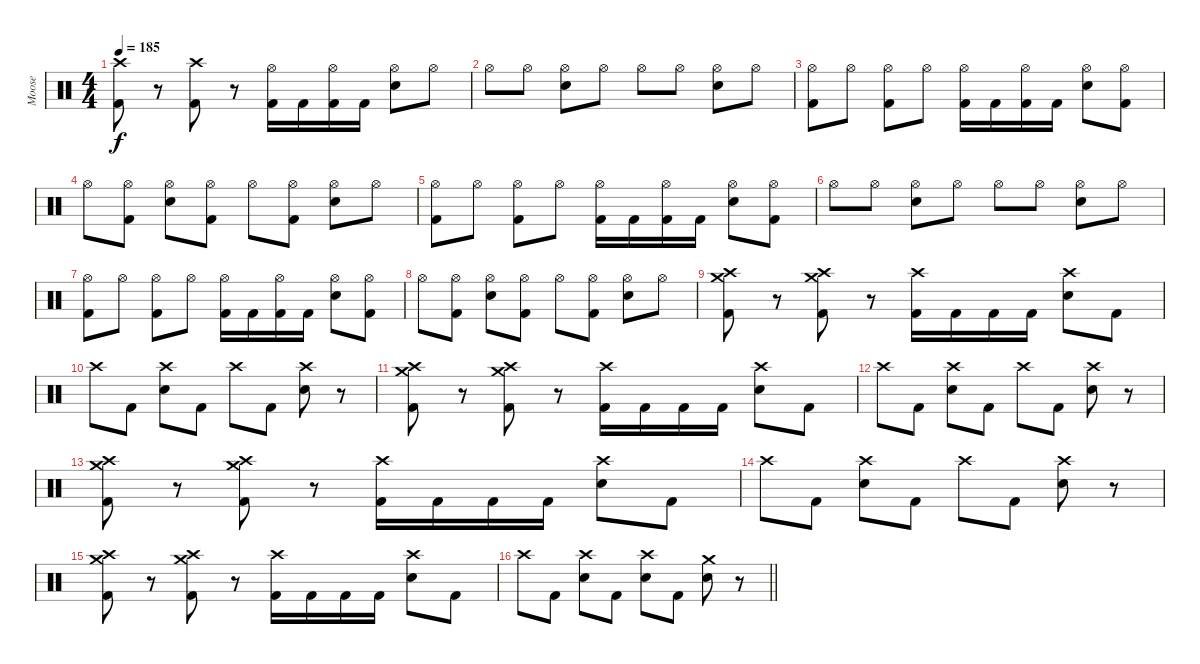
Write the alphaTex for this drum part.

\track ("Moose" "Moose") {instrument percussion}
\staff {score}
\articulation defaults
\ts (4 4)
\tempo 185
\clef neutral
\ks c
("Crash high (hit)" "Kick (hit) 2").8{dy f} r.8 ("Crash high (hit)" "Kick (hit) 2").8 r.8 ("Hi-Hat (open)" "Kick (hit) 2").16 "Kick (hit) 2".16 ("Hi-Hat (open)" "Kick (hit) 2").16 "Kick (hit) 2".16 ("Hi-Hat (open)" "Electric Snare (hit)").8 "Hi-Hat (open)".8 |
"Hi-Hat (open)".8 "Hi-Hat (open)".8 ("Hi-Hat (open)" "Electric Snare (hit)").8 "Hi-Hat (open)".8 "Hi-Hat (open)".8 "Hi-Hat (open)".8 ("Hi-Hat (open)" "Electric Snare (hit)").8 "Hi-Hat (open)".8 |
("Hi-Hat (open)" "Kick (hit) 2").8 "Hi-Hat (open)".8 ("Hi-Hat (open)" "Kick (hit) 2").8 "Hi-Hat (open)".8 ("Hi-Hat (open)" "Kick (hit) 2").16 "Kick (hit) 2".16 ("Hi-Hat (open)" "Kick (hit) 2").16 "Kick (hit) 2".16 ("Hi-Hat (open)" "Electric Snare (hit)").8 ("Hi-Hat (open)" "Kick (hit) 2").8 |
"Hi-Hat (open)".8 ("Hi-Hat (open)" "Kick (hit) 2").8 ("Hi-Hat (open)" "Electric Snare (hit)").8 ("Hi-Hat (open)" "Kick (hit) 2").8 "Hi-Hat (open)".8 ("Hi-Hat (open)" "Kick (hit) 2").8 ("Hi-Hat (open)" "Electric Snare (hit)").8 "Hi-Hat (open)".8 |
("Hi-Hat (open)" "Kick (hit) 2").8 "Hi-Hat (open)".8 ("Hi-Hat (open)" "Kick (hit) 2").8 "Hi-Hat (open)".8 ("Hi-Hat (open)" "Kick (hit) 2").16 "Kick (hit) 2".16 ("Hi-Hat (open)" "Kick (hit) 2").16 "Kick (hit) 2".16 ("Hi-Hat (open)" "Electric Snare (hit)").8 ("Hi-Hat (open)" "Kick (hit) 2").8 |
"Hi-Hat (open)".8 "Hi-Hat (open)".8 ("Hi-Hat (open)" "Electric Snare (hit)").8 "Hi-Hat (open)".8 "Hi-Hat (open)".8 "Hi-Hat (open)".8 ("Hi-Hat (open)" "Electric Snare (hit)").8 "Hi-Hat (open)".8 |
("Hi-Hat (open)" "Kick (hit) 2").8 "Hi-Hat (open)".8 ("Hi-Hat (open)" "Kick (hit) 2").8 "Hi-Hat (open)".8 ("Hi-Hat (open)" "Kick (hit) 2").16 "Kick (hit) 2".16 ("Hi-Hat (open)" "Kick (hit) 2").16 "Kick (hit) 2".16 ("Hi-Hat (open)" "Electric Snare (hit)").8 ("Hi-Hat (open)" "Kick (hit) 2").8 |
"Hi-Hat (open)".8 ("Hi-Hat (open)" "Kick (hit) 2").8 ("Hi-Hat (open)" "Electric Snare (hit)").8 ("Hi-Hat (open)" "Kick (hit) 2").8 "Hi-Hat (open)".8 ("Hi-Hat (open)" "Kick (hit) 2").8 ("Hi-Hat (open)" "Electric Snare (hit)").8 "Hi-Hat (open)".8 |
("Crash medium (hit)" "Crash high (hit)" "Kick (hit) 2").8 r.8 ("Crash medium (hit)" "Crash high (hit)" "Kick (hit) 2").8 r.8 ("Crash high (hit)" "Kick (hit) 2").16 "Kick (hit) 2".16 "Kick (hit) 2".16 "Kick (hit) 2".16 ("Crash high (hit)" "Electric Snare (hit)").8 "Kick (hit) 2".8 |
"Crash high (hit)".8 "Kick (hit) 2".8 ("Crash high (hit)" "Electric Snare (hit)").8 "Kick (hit) 2".8 "Crash high (hit)".8 "Kick (hit) 2".8 ("Crash high (hit)" "Electric Snare (hit)").8 r.8 |
("Crash medium (hit)" "Crash high (hit)" "Kick (hit) 2").8 r.8 ("Crash medium (hit)" "Crash high (hit)" "Kick (hit) 2").8 r.8 ("Crash high (hit)" "Kick (hit) 2").16 "Kick (hit) 2".16 "Kick (hit) 2".16 "Kick (hit) 2".16 ("Crash high (hit)" "Electric Snare (hit)").8 "Kick (hit) 2".8 |
"Crash high (hit)".8 "Kick (hit) 2".8 ("Crash high (hit)" "Electric Snare (hit)").8 "Kick (hit) 2".8 "Crash high (hit)".8 "Kick (hit) 2".8 ("Crash high (hit)" "Electric Snare (hit)").8 r.8 |
("Crash medium (hit)" "Crash high (hit)" "Kick (hit) 2").8 r.8 ("Crash medium (hit)" "Crash high (hit)" "Kick (hit) 2").8 r.8 ("Crash high (hit)" "Kick (hit) 2").16 "Kick (hit) 2".16 "Kick (hit) 2".16 "Kick (hit) 2".16 ("Crash high (hit)" "Electric Snare (hit)").8 "Kick (hit) 2".8 |
"Crash high (hit)".8 "Kick (hit) 2".8 ("Crash high (hit)" "Electric Snare (hit)").8 "Kick (hit) 2".8 "Crash high (hit)".8 "Kick (hit) 2".8 ("Crash high (hit)" "Electric Snare (hit)").8 r.8 |
("Crash medium (hit)" "Crash high (hit)" "Kick (hit) 2").8 r.8 ("Crash medium (hit)" "Crash high (hit)" "Kick (hit) 2").8 r.8 ("Crash high (hit)" "Kick (hit) 2").16 "Kick (hit) 2".16 "Kick (hit) 2".16 "Kick (hit) 2".16 ("Crash high (hit)" "Electric Snare (hit)").8 "Kick (hit) 2".8 |
\barLineRight lightlight "Crash high (hit)".8 "Kick (hit) 2".8
("Crash high (hit)" "Electric Snare (hit)").8 "Kick (hit) 2".8 ("Crash high (hit)" "Electric Snare (hit)").8 "Kick (hit) 2".8 ("Crash medium (hit)" "Electric Snare (hit)").8 r.8
